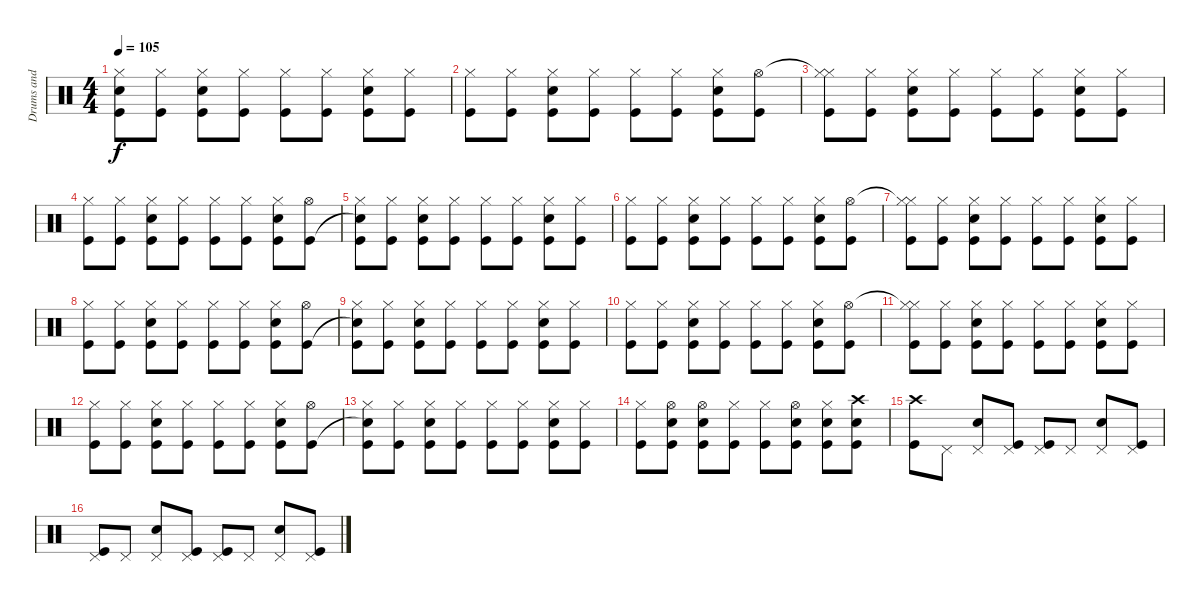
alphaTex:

\track ("Drums and loops" "Drums and ") {instrument percussion}
\staff {score}
\articulation defaults
\ts (4 4)
\tempo 105
\clef neutral
\ks c
("Hi-Hat (closed)" "Snare (hit)"{t} "Kick (hit)").8{dy f} ("Hi-Hat (closed)" "Kick (hit)").8 ("Hi-Hat (closed)" "Electric Snare (hit)" "Kick (hit)").8 ("Hi-Hat (closed)" "Kick (hit)").8 ("Hi-Hat (closed)" "Kick (hit)").8 ("Hi-Hat (closed)" "Kick (hit)").8 ("Hi-Hat (closed)" "Electric Snare (hit)" "Kick (hit)").8 ("Hi-Hat (closed)" "Kick (hit)").8 |
("Hi-Hat (closed)" "Kick (hit)").8 ("Hi-Hat (closed)" "Kick (hit)").8 ("Hi-Hat (closed)" "Electric Snare (hit)" "Kick (hit)").8 ("Hi-Hat (closed)" "Kick (hit)").8 ("Hi-Hat (closed)" "Kick (hit)").8 ("Hi-Hat (closed)" "Kick (hit)").8 ("Hi-Hat (closed)" "Electric Snare (hit)" "Kick (hit)").8 ("Hi-Hat (open)" "Kick (hit)").8 |
("Hi-Hat (closed)"{t} "Hi-Hat (closed)" "Kick (hit)").8 ("Hi-Hat (closed)" "Kick (hit)").8 ("Hi-Hat (closed)" "Electric Snare (hit)" "Kick (hit)").8 ("Hi-Hat (closed)" "Kick (hit)").8 ("Hi-Hat (closed)" "Kick (hit)").8 ("Hi-Hat (closed)" "Kick (hit)").8 ("Hi-Hat (closed)" "Electric Snare (hit)" "Kick (hit)").8 ("Hi-Hat (closed)" "Kick (hit)").8 |
("Hi-Hat (closed)" "Kick (hit)").8 ("Hi-Hat (closed)" "Kick (hit)").8 ("Hi-Hat (closed)" "Electric Snare (hit)" "Kick (hit)").8 ("Hi-Hat (closed)" "Kick (hit)").8 ("Hi-Hat (closed)" "Kick (hit)").8 ("Hi-Hat (closed)" "Kick (hit)").8 ("Hi-Hat (closed)" "Electric Snare (hit)" "Kick (hit)").8 ("Hi-Hat (open)" "Kick (hit)").8 |
("Hi-Hat (closed)" "Snare (hit)"{t} "Kick (hit)").8 ("Hi-Hat (closed)" "Kick (hit)").8 ("Hi-Hat (closed)" "Electric Snare (hit)" "Kick (hit)").8 ("Hi-Hat (closed)" "Kick (hit)").8 ("Hi-Hat (closed)" "Kick (hit)").8 ("Hi-Hat (closed)" "Kick (hit)").8 ("Hi-Hat (closed)" "Electric Snare (hit)" "Kick (hit)").8 ("Hi-Hat (closed)" "Kick (hit)").8 |
("Hi-Hat (closed)" "Kick (hit)").8 ("Hi-Hat (closed)" "Kick (hit)").8 ("Hi-Hat (closed)" "Electric Snare (hit)" "Kick (hit)").8 ("Hi-Hat (closed)" "Kick (hit)").8 ("Hi-Hat (closed)" "Kick (hit)").8 ("Hi-Hat (closed)" "Kick (hit)").8 ("Hi-Hat (closed)" "Electric Snare (hit)" "Kick (hit)").8 ("Hi-Hat (open)" "Kick (hit)").8 |
("Hi-Hat (closed)"{t} "Hi-Hat (closed)" "Kick (hit)").8 ("Hi-Hat (closed)" "Kick (hit)").8 ("Hi-Hat (closed)" "Electric Snare (hit)" "Kick (hit)").8 ("Hi-Hat (closed)" "Kick (hit)").8 ("Hi-Hat (closed)" "Kick (hit)").8 ("Hi-Hat (closed)" "Kick (hit)").8 ("Hi-Hat (closed)" "Electric Snare (hit)" "Kick (hit)").8 ("Hi-Hat (closed)" "Kick (hit)").8 |
("Hi-Hat (closed)" "Kick (hit)").8 ("Hi-Hat (closed)" "Kick (hit)").8 ("Hi-Hat (closed)" "Electric Snare (hit)" "Kick (hit)").8 ("Hi-Hat (closed)" "Kick (hit)").8 ("Hi-Hat (closed)" "Kick (hit)").8 ("Hi-Hat (closed)" "Kick (hit)").8 ("Hi-Hat (closed)" "Electric Snare (hit)" "Kick (hit)").8 ("Hi-Hat (open)" "Kick (hit)").8 |
("Hi-Hat (closed)" "Snare (hit)"{t} "Kick (hit)").8 ("Hi-Hat (closed)" "Kick (hit)").8 ("Hi-Hat (closed)" "Electric Snare (hit)" "Kick (hit)").8 ("Hi-Hat (closed)" "Kick (hit)").8 ("Hi-Hat (closed)" "Kick (hit)").8 ("Hi-Hat (closed)" "Kick (hit)").8 ("Hi-Hat (closed)" "Electric Snare (hit)" "Kick (hit)").8 ("Hi-Hat (closed)" "Kick (hit)").8 |
("Hi-Hat (closed)" "Kick (hit)").8 ("Hi-Hat (closed)" "Kick (hit)").8 ("Hi-Hat (closed)" "Electric Snare (hit)" "Kick (hit)").8 ("Hi-Hat (closed)" "Kick (hit)").8 ("Hi-Hat (closed)" "Kick (hit)").8 ("Hi-Hat (closed)" "Kick (hit)").8 ("Hi-Hat (closed)" "Electric Snare (hit)" "Kick (hit)").8 ("Hi-Hat (open)" "Kick (hit)").8 |
("Hi-Hat (closed)"{t} "Hi-Hat (closed)" "Kick (hit)").8 ("Hi-Hat (closed)" "Kick (hit)").8 ("Hi-Hat (closed)" "Electric Snare (hit)" "Kick (hit)").8 ("Hi-Hat (closed)" "Kick (hit)").8 ("Hi-Hat (closed)" "Kick (hit)").8 ("Hi-Hat (closed)" "Kick (hit)").8 ("Hi-Hat (closed)" "Electric Snare (hit)" "Kick (hit)").8 ("Hi-Hat (closed)" "Kick (hit)").8 |
("Hi-Hat (closed)" "Kick (hit)").8 ("Hi-Hat (closed)" "Kick (hit)").8 ("Hi-Hat (closed)" "Electric Snare (hit)" "Kick (hit)").8 ("Hi-Hat (closed)" "Kick (hit)").8 ("Hi-Hat (closed)" "Kick (hit)").8 ("Hi-Hat (closed)" "Kick (hit)").8 ("Hi-Hat (closed)" "Electric Snare (hit)" "Kick (hit)").8 ("Hi-Hat (open)" "Kick (hit)").8 |
("Hi-Hat (closed)" "Snare (hit)"{t} "Kick (hit)").8 ("Hi-Hat (closed)" "Kick (hit)").8 ("Hi-Hat (closed)" "Electric Snare (hit)" "Kick (hit)").8 ("Hi-Hat (closed)" "Kick (hit)").8 ("Hi-Hat (closed)" "Kick (hit)").8 ("Hi-Hat (closed)" "Kick (hit)").8 ("Hi-Hat (closed)" "Electric Snare (hit)" "Kick (hit)").8 ("Hi-Hat (closed)" "Kick (hit)").8 |
("Hi-Hat (closed)" "Kick (hit)").8 ("Hi-Hat (open)" "Electric Snare (hit)" "Kick (hit)").8 ("Hi-Hat (open)" "Electric Snare (hit)" "Kick (hit)").8 ("Hi-Hat (closed)" "Kick (hit)").8 ("Hi-Hat (closed)" "Kick (hit)").8 ("Hi-Hat (open)" "Electric Snare (hit)" "Kick (hit)").8 ("Hi-Hat (closed)" "Electric Snare (hit)" "Kick (hit)").8 ("Electric Snare (hit)" "Crash high (hit)" "Kick (hit)").8 |
("Crash high (hit)" "Kick (hit)").8 "Pedal Hi-Hat (hit)".8 ("Pedal Hi-Hat (hit)" "Electric Snare (hit)").8 ("Pedal Hi-Hat (hit)" "Kick (hit)").8 ("Pedal Hi-Hat (hit)" "Kick (hit)").8 "Pedal Hi-Hat (hit)".8 ("Pedal Hi-Hat (hit)" "Electric Snare (hit)").8 ("Pedal Hi-Hat (hit)" "Kick (hit)").8 |
("Pedal Hi-Hat (hit)" "Kick (hit)").8 "Pedal Hi-Hat (hit)".8 ("Electric Snare (hit)" "Pedal Hi-Hat (hit)").8 ("Pedal Hi-Hat (hit)" "Kick (hit)").8 ("Pedal Hi-Hat (hit)" "Kick (hit)").8 "Pedal Hi-Hat (hit)".8 ("Pedal Hi-Hat (hit)" "Electric Snare (hit)").8 ("Pedal Hi-Hat (hit)" "Kick (hit)").8
